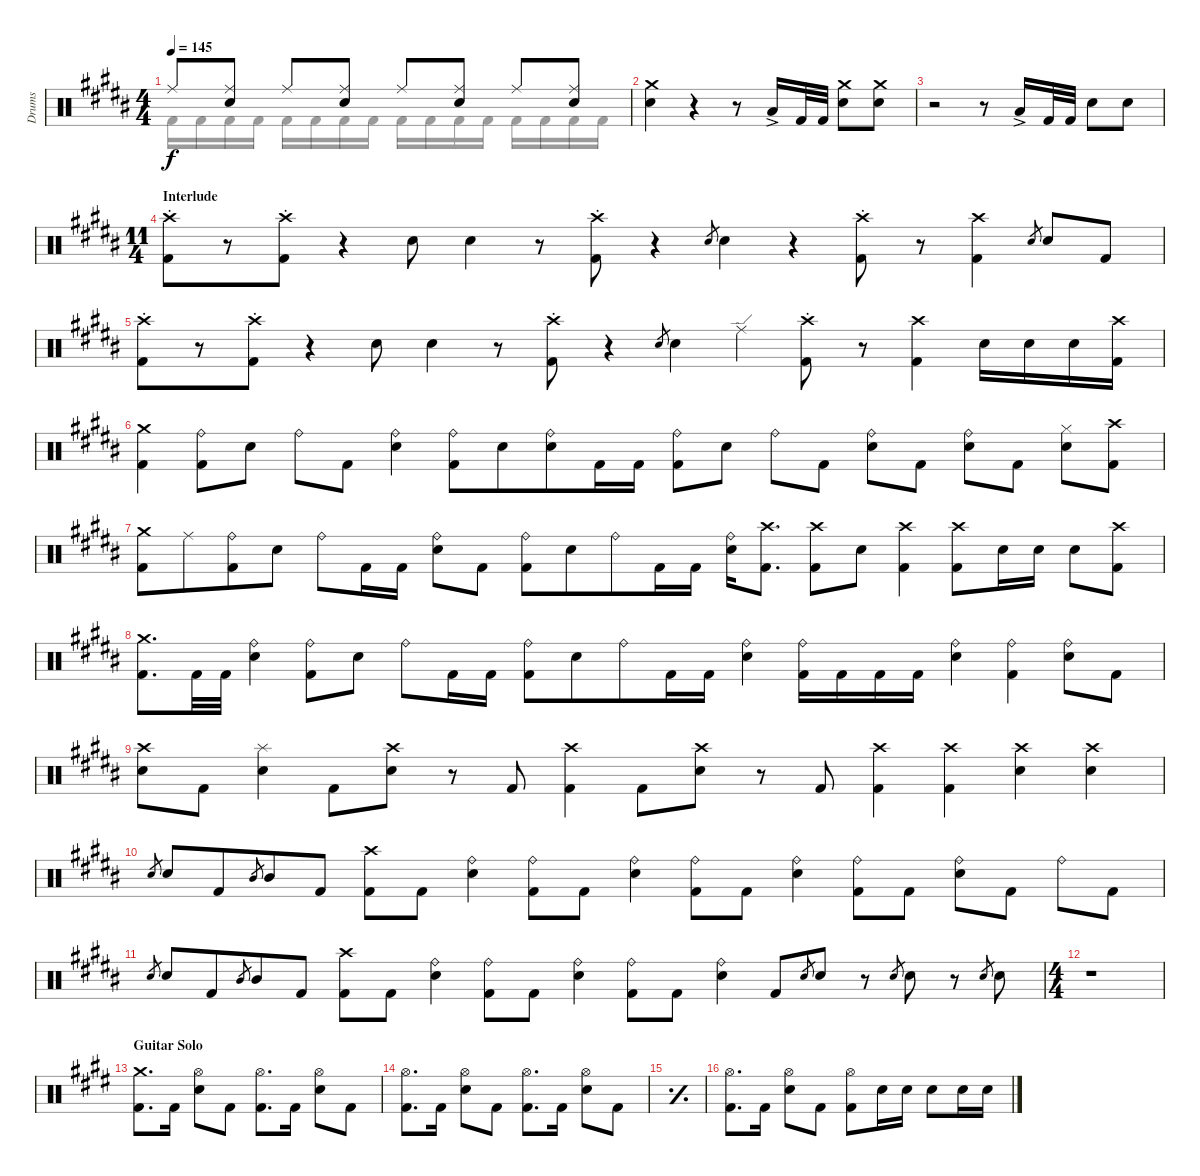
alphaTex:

\defaultSystemsLayout 4
\bracketExtendMode groupsimilarinstruments
\otherSystemsTrackNameOrientation horizontal
\track ("Drumkit" "Drums") {multiBarRest instrument percussion}
\staff {score}
\articulation defaults
\voice
\ts (4 4)
\tempo 145
\clef neutral
\ks b "Ride (middle)"{acc forcenatural}.8{dy f}
("Snare (hit) 2"{acc forcenatural} "Ride (middle)"{acc forcenatural}).8 "Ride (middle)"{acc forcenatural}.8 ("Snare (hit) 2"{acc forcenatural} "Ride (middle)"{acc forcenatural}).8 "Ride (middle)"{acc forcenatural}.8 ("Snare (hit) 2"{acc forcenatural} "Ride (middle)"{acc forcenatural}).8 "Ride (middle)"{acc forcenatural}.8 ("Snare (hit) 2"{acc forcenatural} "Ride (middle)"{acc forcenatural}).8 |
("Snare (hit) 2"{acc forcenatural} "Crash medium (hit)"{acc forcenatural}).4 r.4 r.8 "Low Tom (hit)"{ac acc forcenatural}.16 "Kick (hit) 2"{acc forcenatural}.32 "Kick (hit) 2"{acc forcenatural}.32 ("Snare (hit) 2"{acc forcenatural} "Crash medium (hit)"{acc forcenatural}).8 ("Snare (hit) 2"{acc forcenatural} "Crash medium (hit)"{acc forcenatural}).8 |
r.2 r.8 "Low Tom (hit)"{ac acc forcenatural}.16 "Kick (hit) 2"{acc forcenatural}.32 "Kick (hit) 2"{acc forcenatural}.32 "Snare (hit) 2"{acc forcenatural}.8 "Snare (hit) 2"{acc forcenatural}.8 |
\ts (11 4)
\beaming (8 4 2 2 4 2 2 2 2 2)
\section ("" "Interlude")
("Kick (hit) 2"{acc forcenatural} "Crash high (hit)"{st acc forcenatural}).8 r.8 ("Kick (hit) 2"{acc forcenatural} "Crash high (hit)"{st acc forcenatural}).8 r.4 "Snare (hit) 2"{acc forcenatural}.8 "Snare (hit) 2"{acc forcenatural}.4 r.8 ("Kick (hit) 2"{acc forcenatural} "Crash high (hit)"{st acc forcenatural}).8 r.4 "Snare (hit) 2"{acc forcenatural}.8{gr} "Snare (hit) 2"{acc forcenatural}.4 r.4 ("Kick (hit) 2"{acc forcenatural} "Crash high (hit)"{st acc forcenatural}).8 r.8 ("Kick (hit) 2"{acc forcenatural} "Crash high (hit)"{acc forcenatural}).4 "Snare (hit) 2"{acc forcenatural}.8{gr} "Snare (hit) 2"{acc forcenatural}.8 "Kick (hit) 2"{acc forcenatural}.8 |
("Kick (hit) 2"{acc forcenatural} "Crash high (hit)"{st acc forcenatural}).8 r.8 ("Kick (hit) 2"{acc forcenatural} "Crash high (hit)"{st acc forcenatural}).8 r.4 "Snare (hit) 2"{acc forcenatural}.8 "Snare (hit) 2"{acc forcenatural}.4 r.8 ("Kick (hit) 2"{acc forcenatural} "Crash high (hit)"{st acc forcenatural}).8 r.4 "Snare (hit) 2"{acc forcenatural}.8{gr} "Snare (hit) 2"{acc forcenatural}.4 "Ride (edge)"{acc forcenatural}.4 ("Kick (hit) 2"{acc forcenatural} "Crash high (hit)"{st acc forcenatural}).8 r.8 ("Kick (hit) 2"{acc forcenatural} "Crash high (hit)"{acc forcenatural}).4 "Snare (hit) 2"{acc forcenatural}.16 "Snare (hit) 2"{acc forcenatural}.16 "Snare (hit) 2"{acc forcenatural}.16 ("Crash high (hit)"{acc forcenatural} "Kick (hit) 2"{acc forcenatural}).16 |
("Kick (hit) 2"{acc forcenatural} "Crash medium (hit)"{acc forcenatural}).4 ("Kick (hit) 2"{acc forcenatural} "Ride (bell)"{acc forcenatural}).8 "Snare (hit) 2"{acc forcenatural}.8 "Ride (bell)"{acc forcenatural}.8 "Kick (hit) 2"{acc forcenatural}.8 ("Snare (hit) 2"{acc forcenatural} "Ride (bell)"{acc forcenatural}).4 ("Ride (bell)"{acc forcenatural} "Kick (hit) 2"{acc forcenatural}).8 "Snare (hit) 2"{acc forcenatural}.8 ("Ride (bell)"{acc forcenatural} "Snare (hit) 2"{acc forcenatural}).8 "Kick (hit) 2"{acc forcenatural}.16 "Kick (hit) 2"{acc forcenatural}.16 ("Ride (bell)"{acc forcenatural} "Kick (hit) 2"{acc forcenatural}).8 "Snare (hit) 2"{acc forcenatural}.8 "Ride (bell)"{acc forcenatural}.8 "Kick (hit) 2"{acc forcenatural}.8 ("Ride (bell)"{acc forcenatural} "Snare (hit) 2"{acc forcenatural}).8 "Kick (hit) 2"{acc forcenatural}.8 ("Ride (bell)"{acc forcenatural} "Snare (hit) 2"{acc forcenatural}).8 "Kick (hit) 2"{acc forcenatural}.8 ("Snare (hit) 2"{acc forcenatural} "Hi-Hat (closed)"{acc forcenatural}).8 ("Kick (hit) 2"{acc forcenatural} "Crash high (hit)"{acc forcenatural}).8 |
("Kick (hit) 2"{acc forcenatural} "Crash medium (hit)"{acc forcenatural}).8 "Ride (middle)"{acc forcenatural}.8 ("Ride (bell)"{acc forcenatural} "Kick (hit) 2"{acc forcenatural}).8 "Snare (hit) 2"{acc forcenatural}.8 "Ride (bell)"{acc forcenatural}.8 "Kick (hit) 2"{acc forcenatural}.16 "Kick (hit) 2"{acc forcenatural}.16 ("Ride (bell)"{acc forcenatural} "Snare (hit) 2"{acc forcenatural}).8 "Kick (hit) 2"{acc forcenatural}.8 ("Ride (bell)"{acc forcenatural} "Kick (hit) 2"{acc forcenatural}).8 "Snare (hit) 2"{acc forcenatural}.8 "Ride (bell)"{acc forcenatural}.8 "Kick (hit) 2"{acc forcenatural}.16 "Kick (hit) 2"{acc forcenatural}.16 ("Snare (hit) 2"{acc forcenatural} "Ride (bell)"{acc forcenatural}).16 ("Kick (hit) 2"{acc forcenatural} "Crash high (hit)"{acc forcenatural}).8{d} ("Kick (hit) 2"{acc forcenatural} "Crash high (hit)"{acc forcenatural}).8 "Snare (hit) 2"{acc forcenatural}.8 ("Crash high (hit)"{acc forcenatural} "Kick (hit) 2"{acc forcenatural}).4 ("Crash high (hit)"{acc forcenatural} "Kick (hit) 2"{acc forcenatural}).8 "Snare (hit) 2"{acc forcenatural}.16 "Snare (hit) 2"{acc forcenatural}.16 "Snare (hit) 2"{acc forcenatural}.8 ("Kick (hit) 2"{acc forcenatural} "Crash high (hit)"{acc forcenatural}).8 |
("Crash medium (hit)"{acc forcenatural} "Kick (hit) 2"{acc forcenatural}).8{d} "Kick (hit) 2"{acc forcenatural}.32 "Kick (hit) 2"{acc forcenatural}.32 ("Snare (hit) 2"{acc forcenatural} "Ride (bell)"{acc forcenatural}).4 ("Kick (hit) 2"{acc forcenatural} "Ride (bell)"{acc forcenatural}).8 "Snare (hit) 2"{acc forcenatural}.8 "Ride (bell)"{acc forcenatural}.8 "Kick (hit) 2"{acc forcenatural}.16 "Kick (hit) 2"{acc forcenatural}.16 ("Kick (hit) 2"{acc forcenatural} "Ride (bell)"{acc forcenatural}).8 "Snare (hit) 2"{acc forcenatural}.8 "Ride (bell)"{acc forcenatural}.8 "Kick (hit) 2"{acc forcenatural}.16 "Kick (hit) 2"{acc forcenatural}.16 ("Snare (hit) 2"{acc forcenatural} "Ride (bell)"{acc forcenatural}).4 ("Ride (bell)"{acc forcenatural} "Kick (hit) 2"{acc forcenatural}).16 "Kick (hit) 2"{acc forcenatural}.16 "Kick (hit) 2"{acc forcenatural}.16 "Kick (hit) 2"{acc forcenatural}.16 ("Snare (hit) 2"{acc forcenatural} "Ride (bell)"{acc forcenatural}).4 ("Kick (hit) 2"{acc forcenatural} "Ride (bell)"{acc forcenatural}).4 ("Snare (hit) 2"{acc forcenatural} "Ride (bell)"{acc forcenatural}).8 "Kick (hit) 2"{acc forcenatural}.8 |
("Snare (hit) 2"{acc forcenatural} "Crash high (hit)"{acc forcenatural}).8 "Kick (hit) 2"{acc forcenatural}.8 ("Snare (hit) 2"{acc forcenatural} "Splash (hit)"{acc forcenatural}).4 "Kick (hit) 2"{acc forcenatural}.8 ("Snare (hit) 2"{acc forcenatural} "Crash high (hit)"{acc forcenatural}).8 r.8 "Kick (hit) 2"{acc forcenatural}.8 ("Kick (hit) 2"{acc forcenatural} "Crash high (hit)"{acc forcenatural}).4 "Kick (hit) 2"{acc forcenatural}.8 ("Snare (hit) 2"{acc forcenatural} "Crash high (hit)"{acc forcenatural}).8 r.8 "Kick (hit) 2"{acc forcenatural}.8 ("Kick (hit) 2"{acc forcenatural} "Crash high (hit)"{acc forcenatural}).4 ("Crash high (hit)"{acc forcenatural} "Kick (hit) 2"{acc forcenatural}).4 ("Crash high (hit)"{acc forcenatural} "Snare (hit) 2"{acc forcenatural}).4 ("Crash high (hit)"{acc forcenatural} "Snare (hit) 2"{acc forcenatural}).4 |
"Snare (hit) 2"{acc forcenatural}.8{gr} "Snare (hit) 2"{acc forcenatural}.8 "Kick (hit) 2"{acc forcenatural}.8 "Mid Tom (hit)"{acc forcenatural}.8{gr} "Mid Tom (hit)"{acc forcenatural}.8 "Kick (hit) 2"{acc forcenatural}.8 ("Kick (hit) 2"{acc forcenatural} "Crash high (hit)"{acc forcenatural}).8 "Kick (hit) 2"{acc forcenatural}.8 ("Snare (hit) 2"{acc forcenatural} "Ride (bell)"{acc forcenatural}).4 ("Ride (bell)"{acc forcenatural} "Kick (hit) 2"{acc forcenatural}).8 "Kick (hit) 2"{acc forcenatural}.8 ("Snare (hit) 2"{acc forcenatural} "Ride (bell)"{acc forcenatural}).4 ("Ride (bell)"{acc forcenatural} "Kick (hit) 2"{acc forcenatural}).8 "Kick (hit) 2"{acc forcenatural}.8 ("Snare (hit) 2"{acc forcenatural} "Ride (bell)"{acc forcenatural}).4 ("Ride (bell)"{acc forcenatural} "Kick (hit) 2"{acc forcenatural}).8 "Kick (hit) 2"{acc forcenatural}.8 ("Snare (hit) 2"{acc forcenatural} "Ride (bell)"{acc forcenatural}).8 "Kick (hit) 2"{acc forcenatural}.8 "Ride (bell)"{acc forcenatural}.8 "Kick (hit) 2"{acc forcenatural}.8 |
"Snare (hit) 2"{acc forcenatural}.8{gr} "Snare (hit) 2"{acc forcenatural}.8 "Kick (hit) 2"{acc forcenatural}.8 "Mid Tom (hit)"{acc forcenatural}.8{gr} "Mid Tom (hit)"{acc forcenatural}.8 "Kick (hit) 2"{acc forcenatural}.8 ("Kick (hit) 2"{acc forcenatural} "Crash high (hit)"{acc forcenatural}).8 "Kick (hit) 2"{acc forcenatural}.8 ("Snare (hit) 2"{acc forcenatural} "Ride (bell)"{acc forcenatural}).4 ("Ride (bell)"{acc forcenatural} "Kick (hit) 2"{acc forcenatural}).8 "Kick (hit) 2"{acc forcenatural}.8 ("Snare (hit) 2"{acc forcenatural} "Ride (bell)"{acc forcenatural}).4 ("Ride (bell)"{acc forcenatural} "Kick (hit) 2"{acc forcenatural}).8 "Kick (hit) 2"{acc forcenatural}.8 ("Snare (hit) 2"{acc forcenatural} "Ride (bell)"{acc forcenatural}).4 "Kick (hit) 2"{acc forcenatural}.8 "Snare (hit) 2"{acc forcenatural}.8{gr} "Snare (hit) 2"{acc forcenatural}.8 r.8 "Snare (hit) 2"{acc forcenatural}.8{gr} "Snare (hit) 2"{acc forcenatural}.8 r.8 "Snare (hit) 2"{acc forcenatural}.8{gr} "Snare (hit) 2"{acc forcenatural}.8 |
\ts (4 4)
\beaming (8 2 2 2 2)
r.1 |
\section ("" "Guitar Solo")
\ks e
("Kick (hit) 2"{acc forcenatural} "Crash medium (hit)"{acc forcenatural}).8{d} "Kick (hit) 2"{acc forcenatural}.16 ("Snare (hit) 2"{acc forcenatural} "Hi-Hat (open)"{acc forcenatural}).8 "Kick (hit) 2"{acc forcenatural}.8 ("Kick (hit) 2"{acc forcenatural} "Hi-Hat (open)"{acc forcenatural}).8{d} "Kick (hit) 2"{acc forcenatural}.16 ("Snare (hit) 2"{acc forcenatural} "Hi-Hat (open)"{acc forcenatural}).8 "Kick (hit) 2"{acc forcenatural}.8 |
("Kick (hit) 2"{acc forcenatural} "Hi-Hat (open)"{acc forcenatural}).8{d} "Kick (hit) 2"{acc forcenatural}.16 ("Snare (hit) 2"{acc forcenatural} "Hi-Hat (open)"{acc forcenatural}).8 "Kick (hit) 2"{acc forcenatural}.8 ("Kick (hit) 2"{acc forcenatural} "Hi-Hat (open)"{acc forcenatural}).8{d} "Kick (hit) 2"{acc forcenatural}.16 ("Snare (hit) 2"{acc forcenatural} "Hi-Hat (open)"{acc forcenatural}).8 "Kick (hit) 2"{acc forcenatural}.8 |
\simile simple
|
\simile none
("Kick (hit) 2"{acc forcenatural} "Hi-Hat (open)"{acc forcenatural}).8{d} "Kick (hit) 2"{acc forcenatural}.16 ("Snare (hit) 2"{acc forcenatural} "Hi-Hat (open)"{acc forcenatural}).8 "Kick (hit) 2"{acc forcenatural}.8 ("Kick (hit) 2"{acc forcenatural} "Hi-Hat (open)"{acc forcenatural}).8 "Snare (hit) 2"{acc forcenatural}.16 "Snare (hit) 2"{acc forcenatural}.16 "Snare (hit) 2"{acc forcenatural}.8 "Snare (hit) 2"{acc forcenatural}.16 "Snare (hit) 2"{acc forcenatural}.16
\voice
\clef neutral
\ottava regular
\simile none
\ks b "Kick (hit) 2"{acc forcenatural}.16{dy f} "Kick (hit) 2"{acc forcenatural}.16 "Kick (hit) 2"{acc forcenatural}.16 "Kick (hit) 2"{acc forcenatural}.16 "Kick (hit) 2"{acc forcenatural}.16 "Kick (hit) 2"{acc forcenatural}.16 "Kick (hit) 2"{acc forcenatural}.16 "Kick (hit) 2"{acc forcenatural}.16 "Kick (hit) 2"{acc forcenatural}.16 "Kick (hit) 2"{acc forcenatural}.16 "Kick (hit) 2"{acc forcenatural}.16 "Kick (hit) 2"{acc forcenatural}.16 "Kick (hit) 2"{acc forcenatural}.16 "Kick (hit) 2"{acc forcenatural}.16 "Kick (hit) 2"{acc forcenatural}.16 "Kick (hit) 2"{acc forcenatural}.16
|
|
|
|
|
|
|
|
|
|
|
|
\ks e
|
|
\simile simple
|
\simile none
